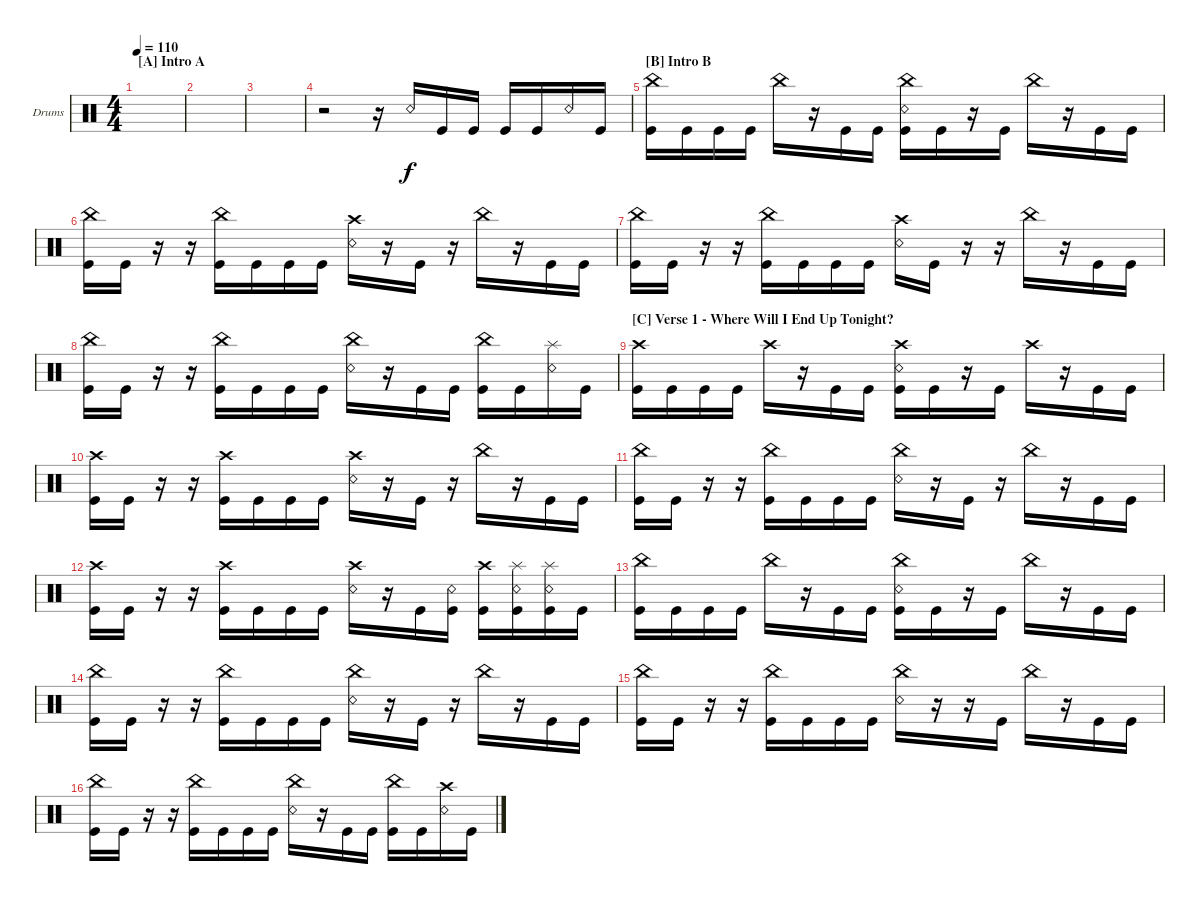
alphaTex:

\defaultSystemsLayout 4
\bracketExtendMode groupsimilarinstruments
\firstSystemTrackNameOrientation horizontal
\otherSystemsTrackNameOrientation horizontal
\track ("Chris Khoury" "Drums") {instrument percussion}
\staff {score}
\articulation defaults
\ts (4 4)
\section ("A" "Intro A")
\tempo 110
\clef neutral
\scale
0.474178
\ks c
|
\scale
0.262911 |
\scale
0.262911 |
\scale
0.333333 r.2 r.16 "Snare (rim shot)".16 "Kick (hit)".16 "Kick (hit)".16 "Kick (hit)".16 "Kick (hit)".16 "Snare (rim shot)".16 "Kick (hit)".16 |
\section ("B" "Intro B")
\scale
0.333333 ("China (hit)" "Kick (hit)").16 "Kick (hit)".16 "Kick (hit)".16 "Kick (hit)".16 "China (hit)".16 r.16 "Kick (hit)".16 "Kick (hit)".16 ("Kick (hit)" "China (hit)" "Snare (rim shot)").16 "Kick (hit)".16 r.16 "Kick (hit)".16 "China (hit)".16 r.16 "Kick (hit)".16 "Kick (hit)".16 |
\scale
0.333333 ("Kick (hit)" "China (hit)").16 "Kick (hit)".16 r.16 r.16 ("Kick (hit)" "China (hit)").16 "Kick (hit)".16 "Kick (hit)".16 "Kick (hit)".16 ("Snare (rim shot)" "Crash high (hit)").16 r.16 "Kick (hit)".16 r.16 "China (hit)".16 r.16 "Kick (hit)".16 "Kick (hit)".16 |
\scale
0.333333 ("Kick (hit)" "China (hit)").16 "Kick (hit)".16 r.16 r.16 ("Kick (hit)" "China (hit)").16 "Kick (hit)".16 "Kick (hit)".16 "Kick (hit)".16 ("Snare (rim shot)" "Crash high (hit)").16 "Kick (hit)".16 r.16 r.16 "China (hit)".16 r.16 "Kick (hit)".16 "Kick (hit)".16 |
\scale
0.333333 ("Kick (hit)" "China (hit)").16 "Kick (hit)".16 r.16 r.16 ("Kick (hit)" "China (hit)").16 "Kick (hit)".16 "Kick (hit)".16 "Kick (hit)".16 ("China (hit)" "Snare (rim shot)").16 r.16 "Kick (hit)".16 "Kick (hit)".16 ("China (hit)" "Kick (hit)").16 "Kick (hit)".16 ("Snare (rim shot)" "Splash (hit)").16 "Kick (hit)".16 |
\section ("C" "Verse 1 - Where Will I End Up Tonight?")
\scale
0.333333 ("Kick (hit)" "Crash high (hit)").16 "Kick (hit)".16 "Kick (hit)".16 "Kick (hit)".16 "Crash high (hit)".16 r.16 "Kick (hit)".16 "Kick (hit)".16 ("Kick (hit)" "Snare (rim shot)" "Crash high (hit)").16 "Kick (hit)".16 r.16 "Kick (hit)".16 "Crash high (hit)".16 r.16 "Kick (hit)".16 "Kick (hit)".16 |
\scale
0.333333 ("Kick (hit)" "Crash high (hit)").16 "Kick (hit)".16 r.16 r.16 ("Kick (hit)" "Crash high (hit)").16 "Kick (hit)".16 "Kick (hit)".16 "Kick (hit)".16 ("Snare (rim shot)" "Crash high (hit)").16 r.16 "Kick (hit)".16 r.16 "China (hit)".16 r.16 "Kick (hit)".16 "Kick (hit)".16 |
\scale
0.333333 ("Kick (hit)" "China (hit)").16 "Kick (hit)".16 r.16 r.16 ("Kick (hit)" "China (hit)").16 "Kick (hit)".16 "Kick (hit)".16 "Kick (hit)".16 ("China (hit)" "Snare (rim shot)").16 r.16 "Kick (hit)".16 r.16 "China (hit)".16 r.16 "Kick (hit)".16 "Kick (hit)".16 |
\scale
0.333333 ("Kick (hit)" "Crash high (hit)").16 "Kick (hit)".16 r.16 r.16 ("Kick (hit)" "Crash high (hit)").16 "Kick (hit)".16 "Kick (hit)".16 "Kick (hit)".16 ("Snare (rim shot)" "Crash high (hit)").16 r.16 "Kick (hit)".16 ("Snare (rim shot)" "Kick (hit)").16 ("Kick (hit)" "Crash high (hit)").16 ("Snare (rim shot)" "Splash (hit)" "Kick (hit)").16 ("Snare (rim shot)" "Splash (hit)" "Kick (hit)").16 "Kick (hit)".16 |
\scale
0.333333 ("Kick (hit)" "China (hit)").16 "Kick (hit)".16 "Kick (hit)".16 "Kick (hit)".16 "China (hit)".16 r.16 "Kick (hit)".16 "Kick (hit)".16 ("Kick (hit)" "Snare (rim shot)" "China (hit)").16 "Kick (hit)".16 r.16 "Kick (hit)".16 "China (hit)".16 r.16 "Kick (hit)".16 "Kick (hit)".16 |
\scale
0.333333 ("Kick (hit)" "China (hit)").16 "Kick (hit)".16 r.16 r.16 ("Kick (hit)" "China (hit)").16 "Kick (hit)".16 "Kick (hit)".16 "Kick (hit)".16 ("Snare (rim shot)" "China (hit)").16 r.16 "Kick (hit)".16 r.16 "China (hit)".16 r.16 "Kick (hit)".16 "Kick (hit)".16 |
\scale
0.333333 ("Kick (hit)" "China (hit)").16 "Kick (hit)".16 r.16 r.16 ("Kick (hit)" "China (hit)").16 "Kick (hit)".16 "Kick (hit)".16 "Kick (hit)".16 ("China (hit)" "Snare (rim shot)").16 r.16 r.16 "Kick (hit)".16 "China (hit)".16 r.16 "Kick (hit)".16 "Kick (hit)".16 |
\scale
0.333333 ("Kick (hit)" "China (hit)").16 "Kick (hit)".16 r.16 r.16 ("Kick (hit)" "China (hit)").16 "Kick (hit)".16 "Kick (hit)".16 "Kick (hit)".16 ("Snare (rim shot)" "China (hit)").16 r.16 "Kick (hit)".16 "Kick (hit)".16 ("Kick (hit)" "China (hit)").16 "Kick (hit)".16 ("Snare (rim shot)" "Crash high (hit)").16 "Kick (hit)".16
